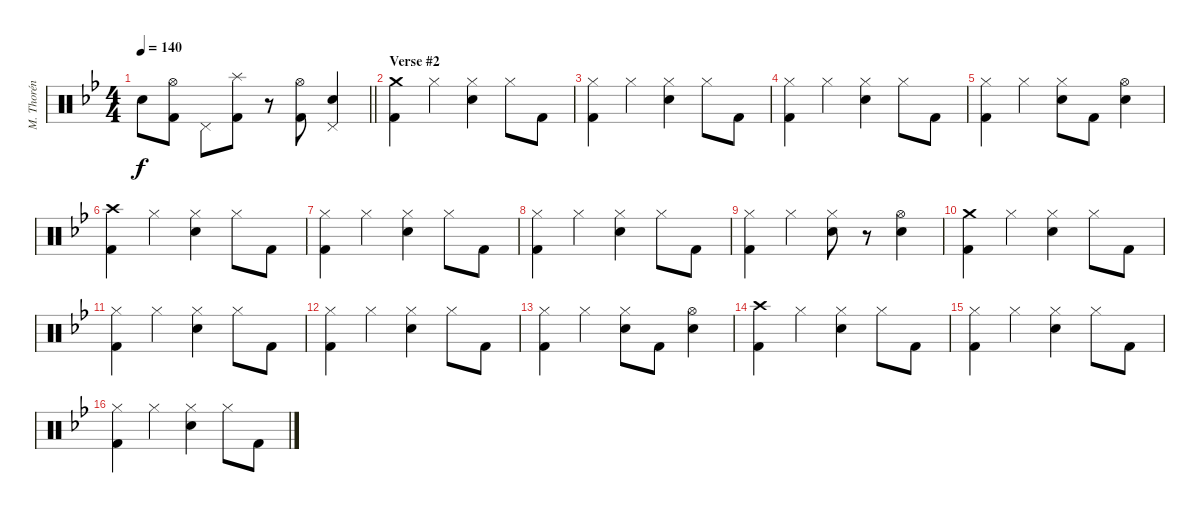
\track ("M. Thorén (Drums)" "M. Thorén ") {instrument percussion}
\staff {score}
\articulation defaults
\ts (4 4)
\tempo 140
\clef neutral
\barLineRight lightlight
\ks gminor "Electric Snare (hit)".8{dy f}
("Hi-Hat (open)" "Kick (hit) 2").8 "Pedal Hi-Hat (hit)".8 ("Splash (hit)" "Kick (hit) 2").8 r.8 ("Hi-Hat (open)" "Kick (hit) 2").8 ("Pedal Hi-Hat (hit)" "Electric Snare (hit)").4 |
\section ("" "Verse #2")
("Crash medium (hit)" "Kick (hit) 2").4 "Hi-Hat (closed)".4 ("Hi-Hat (closed)" "Electric Snare (hit)").4 "Hi-Hat (closed)".8 "Kick (hit) 2".8 |
("Hi-Hat (closed)" "Kick (hit) 2").4 "Hi-Hat (closed)".4 ("Hi-Hat (closed)" "Electric Snare (hit)").4 "Hi-Hat (closed)".8 "Kick (hit) 2".8 |
("Hi-Hat (closed)" "Kick (hit) 2").4 "Hi-Hat (closed)".4 ("Hi-Hat (closed)" "Electric Snare (hit)").4 "Hi-Hat (closed)".8 "Kick (hit) 2".8 |
("Hi-Hat (closed)" "Kick (hit) 2").4 "Hi-Hat (closed)".4 ("Hi-Hat (closed)" "Electric Snare (hit)").8 "Kick (hit) 2".8 ("Hi-Hat (open)" "Electric Snare (hit)").4 |
("Crash high (hit)" "Kick (hit) 2").4 "Hi-Hat (closed)".4 ("Hi-Hat (closed)" "Electric Snare (hit)").4 "Hi-Hat (closed)".8 "Kick (hit) 2".8 |
("Hi-Hat (closed)" "Kick (hit) 2").4 "Hi-Hat (closed)".4 ("Hi-Hat (closed)" "Electric Snare (hit)").4 "Hi-Hat (closed)".8 "Kick (hit) 2".8 |
("Hi-Hat (closed)" "Kick (hit) 2").4 "Hi-Hat (closed)".4 ("Hi-Hat (closed)" "Electric Snare (hit)").4 "Hi-Hat (closed)".8 "Kick (hit) 2".8 |
("Hi-Hat (closed)" "Kick (hit) 2").4 "Hi-Hat (closed)".4 ("Hi-Hat (closed)" "Electric Snare (hit)").8 r.8 ("Hi-Hat (open)" "Electric Snare (hit)").4 |
("Crash medium (hit)" "Kick (hit) 2").4 "Hi-Hat (closed)".4 ("Hi-Hat (closed)" "Electric Snare (hit)").4 "Hi-Hat (closed)".8 "Kick (hit) 2".8 |
("Hi-Hat (closed)" "Kick (hit) 2").4 "Hi-Hat (closed)".4 ("Hi-Hat (closed)" "Electric Snare (hit)").4 "Hi-Hat (closed)".8 "Kick (hit) 2".8 |
("Hi-Hat (closed)" "Kick (hit) 2").4 "Hi-Hat (closed)".4 ("Hi-Hat (closed)" "Electric Snare (hit)").4 "Hi-Hat (closed)".8 "Kick (hit) 2".8 |
("Hi-Hat (closed)" "Kick (hit) 2").4 "Hi-Hat (closed)".4 ("Hi-Hat (closed)" "Electric Snare (hit)").8 "Kick (hit) 2".8 ("Hi-Hat (open)" "Electric Snare (hit)").4 |
("Crash high (hit)" "Kick (hit) 2").4 "Hi-Hat (closed)".4 ("Hi-Hat (closed)" "Electric Snare (hit)").4 "Hi-Hat (closed)".8 "Kick (hit) 2".8 |
("Hi-Hat (closed)" "Kick (hit) 2").4 "Hi-Hat (closed)".4 ("Hi-Hat (closed)" "Electric Snare (hit)").4 "Hi-Hat (closed)".8 "Kick (hit) 2".8 |
("Hi-Hat (closed)" "Kick (hit) 2").4 "Hi-Hat (closed)".4 ("Hi-Hat (closed)" "Electric Snare (hit)").4 "Hi-Hat (closed)".8 "Kick (hit) 2".8
